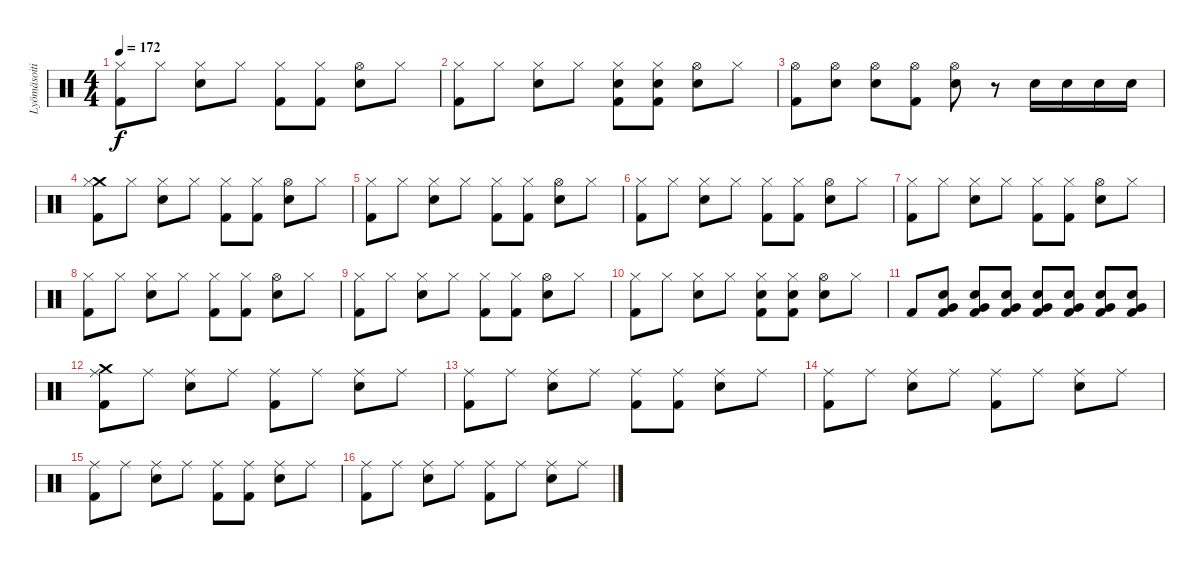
\track ("Lyömäsoitin" "Lyömäsoiti") {instrument percussion}
\staff {score}
\articulation defaults
\ts (4 4)
\tempo 172
\clef neutral
\ks c
("Hi-Hat (closed)" "Kick (hit) 2").8{dy f} "Hi-Hat (closed)".8 ("Hi-Hat (closed)" "Electric Snare (hit)").8 "Hi-Hat (closed)".8 ("Hi-Hat (closed)" "Kick (hit) 2").8 ("Hi-Hat (closed)" "Kick (hit) 2").8 ("Hi-Hat (open)" "Electric Snare (hit)").8 "Hi-Hat (closed)".8 |
("Hi-Hat (closed)" "Kick (hit) 2").8 "Hi-Hat (closed)".8 ("Hi-Hat (closed)" "Electric Snare (hit)").8 "Hi-Hat (closed)".8 ("Hi-Hat (closed)" "Electric Snare (hit)" "Kick (hit) 2").8 ("Hi-Hat (closed)" "Electric Snare (hit)" "Kick (hit) 2").8 ("Hi-Hat (open)" "Electric Snare (hit)").8 "Hi-Hat (closed)".8 |
("Hi-Hat (open)" "Kick (hit) 2").8 ("Hi-Hat (open)" "Electric Snare (hit)").8 ("Hi-Hat (open)" "Electric Snare (hit)").8 ("Hi-Hat (open)" "Kick (hit) 2").8 ("Hi-Hat (open)" "Electric Snare (hit)").8 r.8 "Electric Snare (hit)".16 "Electric Snare (hit)".16 "Electric Snare (hit)".16 "Electric Snare (hit)".16 |
("Crash medium (hit)" "Hi-Hat (closed)" "Kick (hit) 2").8 "Hi-Hat (closed)".8 ("Hi-Hat (closed)" "Electric Snare (hit)").8 "Hi-Hat (closed)".8 ("Hi-Hat (closed)" "Kick (hit) 2").8 ("Hi-Hat (closed)" "Kick (hit) 2").8 ("Hi-Hat (open)" "Electric Snare (hit)").8 "Hi-Hat (closed)".8 |
("Hi-Hat (closed)" "Kick (hit) 2").8 "Hi-Hat (closed)".8 ("Hi-Hat (closed)" "Electric Snare (hit)").8 "Hi-Hat (closed)".8 ("Hi-Hat (closed)" "Kick (hit) 2").8 ("Hi-Hat (closed)" "Kick (hit) 2").8 ("Hi-Hat (open)" "Electric Snare (hit)").8 "Hi-Hat (closed)".8 |
("Hi-Hat (closed)" "Kick (hit) 2").8 "Hi-Hat (closed)".8 ("Hi-Hat (closed)" "Electric Snare (hit)").8 "Hi-Hat (closed)".8 ("Hi-Hat (closed)" "Kick (hit) 2").8 ("Hi-Hat (closed)" "Kick (hit) 2").8 ("Hi-Hat (open)" "Electric Snare (hit)").8 "Hi-Hat (closed)".8 |
("Hi-Hat (closed)" "Kick (hit) 2").8 "Hi-Hat (closed)".8 ("Hi-Hat (closed)" "Electric Snare (hit)").8 "Hi-Hat (closed)".8 ("Hi-Hat (closed)" "Kick (hit) 2").8 ("Hi-Hat (closed)" "Kick (hit) 2").8 ("Hi-Hat (open)" "Electric Snare (hit)").8 "Hi-Hat (closed)".8 |
("Hi-Hat (closed)" "Kick (hit) 2").8 "Hi-Hat (closed)".8 ("Hi-Hat (closed)" "Electric Snare (hit)").8 "Hi-Hat (closed)".8 ("Hi-Hat (closed)" "Kick (hit) 2").8 ("Hi-Hat (closed)" "Kick (hit) 2").8 ("Hi-Hat (open)" "Electric Snare (hit)").8 "Hi-Hat (closed)".8 |
("Hi-Hat (closed)" "Kick (hit) 2").8 "Hi-Hat (closed)".8 ("Hi-Hat (closed)" "Electric Snare (hit)").8 "Hi-Hat (closed)".8 ("Hi-Hat (closed)" "Kick (hit) 2").8 ("Hi-Hat (closed)" "Kick (hit) 2").8 ("Hi-Hat (open)" "Electric Snare (hit)").8 "Hi-Hat (closed)".8 |
("Hi-Hat (closed)" "Kick (hit) 2").8 "Hi-Hat (closed)".8 ("Hi-Hat (closed)" "Electric Snare (hit)").8 "Hi-Hat (closed)".8 ("Hi-Hat (closed)" "Electric Snare (hit)" "Kick (hit) 2").8 ("Hi-Hat (closed)" "Electric Snare (hit)" "Kick (hit) 2").8 ("Hi-Hat (open)" "Electric Snare (hit)").8 "Hi-Hat (closed)".8 |
"Kick (hit) 2".8 ("Very Low Tom (hit)" "Electric Snare (hit)" "Kick (hit) 2").8 ("Very Low Tom (hit)" "Electric Snare (hit)" "Kick (hit) 2").8 ("Very Low Tom (hit)" "Electric Snare (hit)" "Kick (hit) 2").8 ("Very Low Tom (hit)" "Electric Snare (hit)" "Kick (hit) 2").8 ("Very Low Tom (hit)" "Electric Snare (hit)" "Kick (hit) 2").8 ("Very Low Tom (hit)" "Electric Snare (hit)" "Kick (hit) 2").8 ("Very Low Tom (hit)" "Electric Snare (hit)" "Kick (hit) 2").8 |
("Crash medium (hit)" "Ride (middle)" "Kick (hit) 2").8 "Ride (middle)".8 ("Ride (middle)" "Electric Snare (hit)").8 "Ride (middle)".8 ("Ride (middle)" "Kick (hit) 2").8 "Ride (middle)".8 ("Ride (middle)" "Electric Snare (hit)").8 "Ride (middle)".8 |
("Ride (middle)" "Kick (hit) 2").8 "Ride (middle)".8 ("Ride (middle)" "Electric Snare (hit)").8 "Ride (middle)".8 ("Ride (middle)" "Kick (hit) 2").8 ("Ride (middle)" "Kick (hit) 2").8 ("Ride (middle)" "Electric Snare (hit)").8 "Ride (middle)".8 |
("Ride (middle)" "Kick (hit) 2").8 "Ride (middle)".8 ("Ride (middle)" "Electric Snare (hit)").8 "Ride (middle)".8 ("Ride (middle)" "Kick (hit) 2").8 "Ride (middle)".8 ("Ride (middle)" "Electric Snare (hit)").8 "Ride (middle)".8 |
("Ride (middle)" "Kick (hit) 2").8 "Ride (middle)".8 ("Ride (middle)" "Electric Snare (hit)").8 "Ride (middle)".8 ("Ride (middle)" "Kick (hit) 2").8 ("Ride (middle)" "Kick (hit) 2").8 ("Ride (middle)" "Electric Snare (hit)").8 "Ride (middle)".8 |
("Ride (middle)" "Kick (hit) 2").8 "Ride (middle)".8 ("Ride (middle)" "Electric Snare (hit)").8 "Ride (middle)".8 ("Ride (middle)" "Kick (hit) 2").8 "Ride (middle)".8 ("Ride (middle)" "Electric Snare (hit)").8 "Ride (middle)".8
